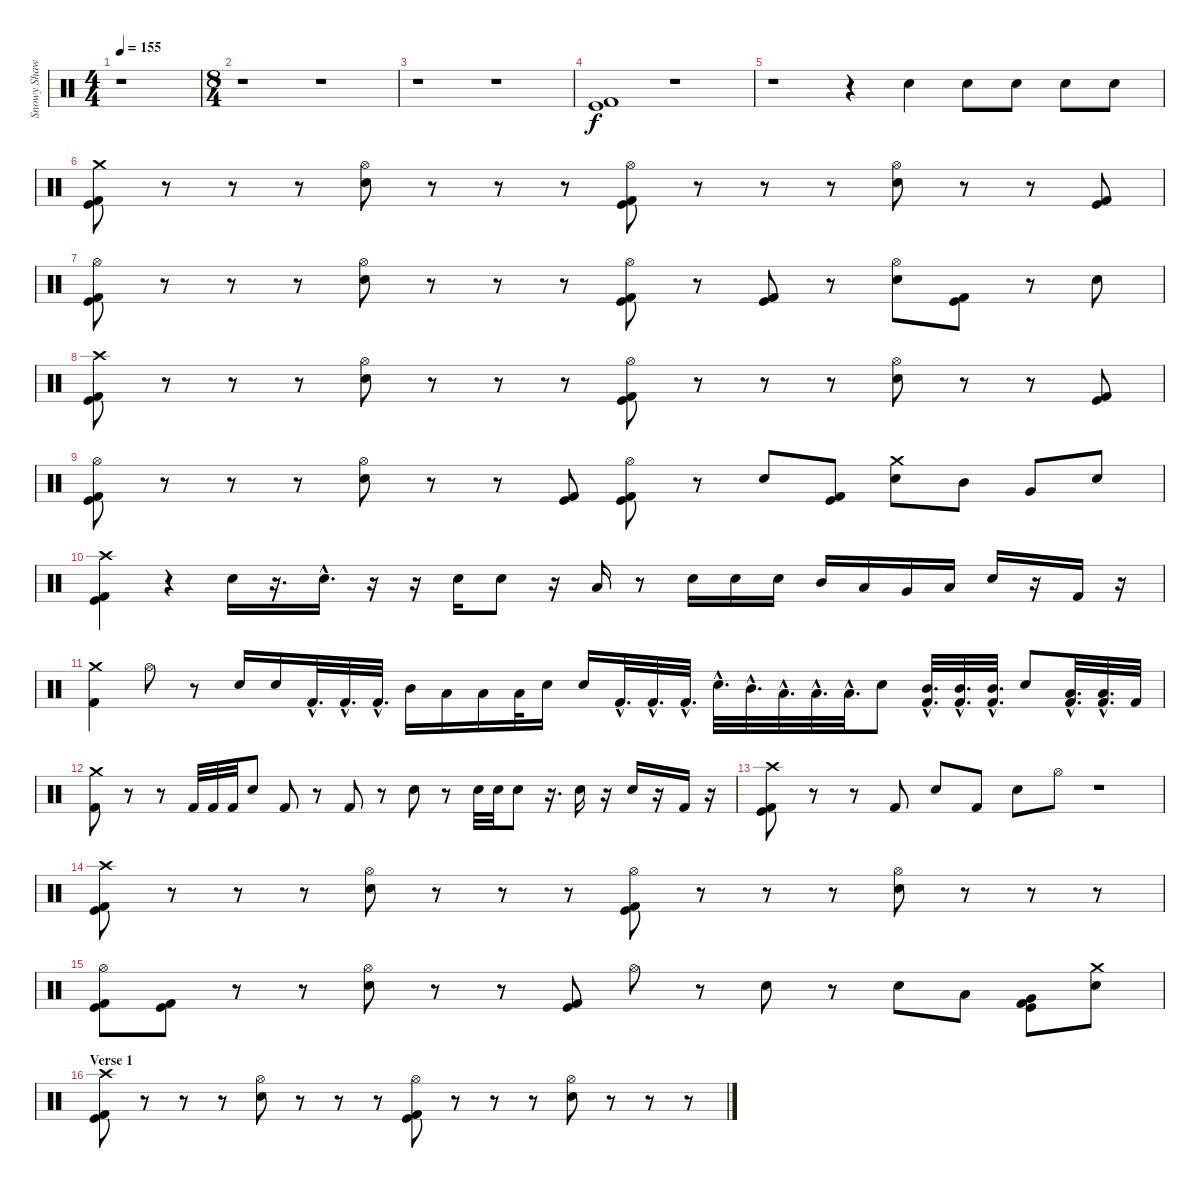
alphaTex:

\track ("Snowy Shaw" "Snowy Shaw") {instrument percussion}
\staff {score}
\articulation defaults
\ts (4 4)
\tempo 155
\clef neutral
\ks c
r.1{dy f} |
\ts (8 4)
r.1 r.1 |
r.1 r.1 |
("Kick (hit)" "Kick (hit) 2").1 r.1 |
r.1 r.4 "Electric Snare (hit)".4 "Electric Snare (hit)".8 "Electric Snare (hit)".8 "Electric Snare (hit)".8 "Electric Snare (hit)".8 |
("Crash medium (hit)" "Kick (hit)" "Kick (hit) 2").8 r.8 r.8 r.8 ("Hi-Hat (open)" "Electric Snare (hit)").8 r.8 r.8 r.8 ("Hi-Hat (open)" "Kick (hit) 2" "Kick (hit)").8 r.8 r.8 r.8 ("Hi-Hat (open)" "Electric Snare (hit)").8 r.8 r.8 ("Kick (hit)" "Kick (hit) 2").8 |
("Hi-Hat (open)" "Kick (hit)" "Kick (hit) 2").8 r.8 r.8 r.8 ("Hi-Hat (open)" "Electric Snare (hit)").8 r.8 r.8 r.8 ("Hi-Hat (open)" "Kick (hit) 2" "Kick (hit)").8 r.8 ("Kick (hit) 2" "Kick (hit)").8 r.8 ("Hi-Hat (open)" "Electric Snare (hit)").8 ("Kick (hit) 2" "Kick (hit)").8 r.8 "Electric Snare (hit)".8 |
("Crash high (hit)" "Kick (hit)" "Kick (hit) 2").8 r.8 r.8 r.8 ("Hi-Hat (open)" "Electric Snare (hit)").8 r.8 r.8 r.8 ("Hi-Hat (open)" "Kick (hit) 2" "Kick (hit)").8 r.8 r.8 r.8 ("Hi-Hat (open)" "Electric Snare (hit)").8 r.8 r.8 ("Kick (hit)" "Kick (hit) 2").8 |
("Hi-Hat (open)" "Kick (hit)" "Kick (hit) 2").8 r.8 r.8 r.8 ("Hi-Hat (open)" "Electric Snare (hit)").8 r.8 r.8 ("Kick (hit) 2" "Kick (hit)").8 ("Hi-Hat (open)" "Kick (hit) 2" "Kick (hit)").8 r.8 "Electric Snare (hit)".8 ("Kick (hit) 2" "Kick (hit)").8 ("Crash medium (hit)" "Electric Snare (hit)").8 "Mid Tom (hit)".8 "Very Low Tom (hit)".8 "Electric Snare (hit)".8 |
("Crash high (hit)" "Kick (hit)" "Kick (hit) 2").4 r.4 "Electric Snare (hit)".16 r.16{d} "Electric Snare (hit)"{hac}.16{d} r.16 r.16 "Electric Snare (hit)".16 "Electric Snare (hit)".8 r.16 "Low Tom (hit)".16 r.8 "Electric Snare (hit)".16 "Electric Snare (hit)".16 "Electric Snare (hit)".16 "Mid Tom (hit)".16 "Low Tom (hit)".16 "Very Low Tom (hit)".16 "Low Floor Tom (hit)".16 "Electric Snare (hit)".16 r.16 "Kick (hit) 2".16 r.16 |
("Crash medium (hit)" "Kick (hit) 2").4 "Hi-Hat (open)".8 r.8 "Electric Snare (hit)".16 "Electric Snare (hit)".16 "Kick (hit) 2"{hac}.32{d} "Kick (hit) 2"{hac}.32{d} "Kick (hit) 2"{hac}.32{d} "Mid Tom (hit)".16 "Low Tom (hit)".16 "Low Tom (hit)".16 "Low Tom (hit)".32 "Electric Snare (hit)".16 "Electric Snare (hit)".16 "Kick (hit) 2"{hac}.32{d} "Kick (hit) 2"{hac}.32{d} "Kick (hit) 2"{hac}.32{d} "Electric Snare (hit)"{hac}.32{d} "Mid Tom (hit)"{hac}.32{d} "Low Tom (hit)"{hac}.32{d} "Low Tom (hit)"{hac}.32{d} "Low Tom (hit)"{hac}.32{d} "Electric Snare (hit)".8 ("Mid Tom (hit)"{hac} "Kick (hit) 2"{hac}).32{d} ("Mid Tom (hit)"{hac} "Kick (hit) 2"{hac}).32{d} ("Mid Tom (hit)"{hac} "Kick (hit) 2"{hac}).32{d} "Electric Snare (hit)".8 ("Low Tom (hit)"{hac} "Kick (hit) 2"{hac}).32{d} ("Low Tom (hit)"{hac} "Kick (hit) 2"{hac}).32{d} "Kick (hit) 2".32 |
("Crash medium (hit)" "Kick (hit) 2").8 r.8 r.8 "Kick (hit) 2".32 "Kick (hit) 2".32 "Kick (hit) 2".32 "Electric Snare (hit)".8 "Kick (hit) 2".8 r.8 "Kick (hit) 2".8 r.8 "Electric Snare (hit)".8 r.8 "Electric Snare (hit)".32 "Electric Snare (hit)".32 "Electric Snare (hit)".8 r.16{d} "Electric Snare (hit)".16 r.16 "Electric Snare (hit)".16 r.16 "Kick (hit) 2".16 r.16 |
("Crash high (hit)" "Kick (hit)" "Kick (hit) 2").8 r.8 r.8 "Kick (hit) 2".8 "Electric Snare (hit)".8 "Kick (hit) 2".8 "Electric Snare (hit)".8 "Hi-Hat (open)".8 r.1 |
("Crash high (hit)" "Kick (hit)" "Kick (hit) 2").8 r.8 r.8 r.8 ("Hi-Hat (open)" "Electric Snare (hit)").8 r.8 r.8 r.8 ("Hi-Hat (open)" "Kick (hit) 2" "Kick (hit)").8 r.8 r.8 r.8 ("Hi-Hat (open)" "Electric Snare (hit)").8 r.8 r.8 r.8 |
("Hi-Hat (open)" "Kick (hit)" "Kick (hit) 2").8 ("Kick (hit) 2" "Kick (hit)").8 r.8 r.8 ("Hi-Hat (open)" "Electric Snare (hit)").8 r.8 r.8 ("Kick (hit) 2" "Kick (hit)").8 "Hi-Hat (open)".8 r.8 "Electric Snare (hit)".8 r.8 "Electric Snare (hit)".8 "Low Tom (hit)".8 ("Very Low Tom (hit)" "Kick (hit) 2" "Kick (hit)").8 ("Crash medium (hit)" "Electric Snare (hit)").8 |
\section ("" "Verse 1")
("Crash high (hit)" "Kick (hit)" "Kick (hit) 2").8 r.8 r.8 r.8 ("Hi-Hat (open)" "Electric Snare (hit)").8 r.8 r.8 r.8 ("Hi-Hat (open)" "Kick (hit) 2" "Kick (hit)").8 r.8 r.8 r.8 ("Hi-Hat (open)" "Electric Snare (hit)").8 r.8 r.8 r.8
